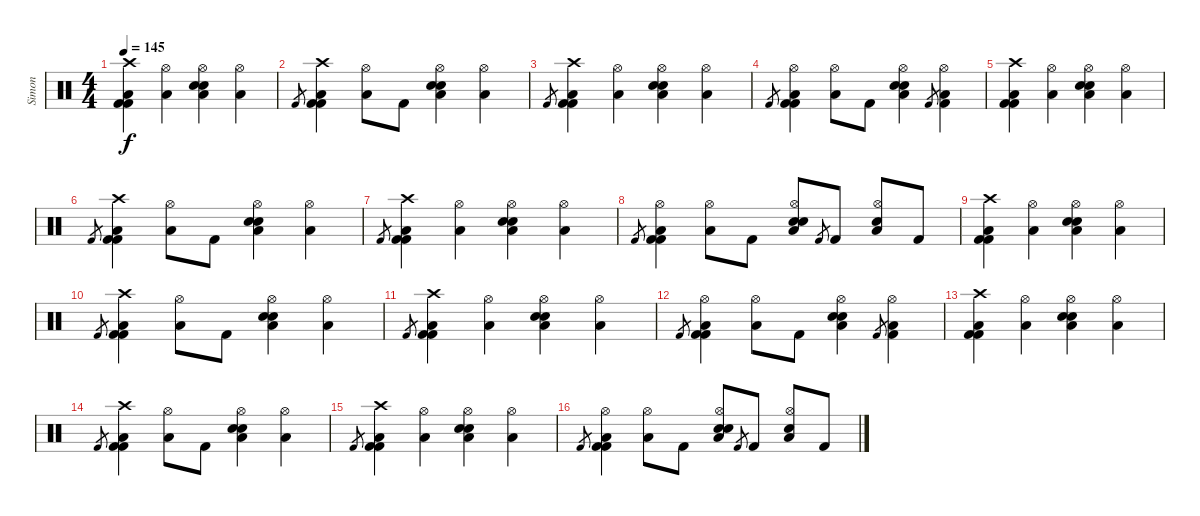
\track ("Simon" "Simon") {instrument percussion}
\staff {score}
\articulation defaults
\ts (4 4)
\tempo 145
\clef neutral
\ks c
("Crash high (hit)" "Kick (hit) 2" "Kick (hit) 2" "Low Tom (hit)").4{dy f} ("Hi-Hat (open)" "Low Tom (hit)").4 ("Hi-Hat (open)" "Electric Snare (hit)" "Electric Snare (hit)" "Low Tom (hit)").4 ("Hi-Hat (open)" "Low Tom (hit)").4 |
"Kick (hit) 2".8{gr} ("Crash high (hit)" "Kick (hit) 2" "Kick (hit) 2" "Low Tom (hit)").4 ("Hi-Hat (open)" "Low Tom (hit)").8 "Kick (hit) 2".8 ("Hi-Hat (open)" "Electric Snare (hit)" "Electric Snare (hit)" "Low Tom (hit)").4 ("Hi-Hat (open)" "Low Tom (hit)").4 |
"Kick (hit) 2".8{gr} ("Crash high (hit)" "Kick (hit) 2" "Kick (hit) 2" "Low Tom (hit)").4 ("Hi-Hat (open)" "Low Tom (hit)").4 ("Hi-Hat (open)" "Electric Snare (hit)" "Electric Snare (hit)" "Low Tom (hit)").4 ("Hi-Hat (open)" "Low Tom (hit)").4 |
"Kick (hit) 2".8{gr} ("Hi-Hat (open)" "Kick (hit) 2" "Kick (hit) 2" "Low Tom (hit)").4 ("Hi-Hat (open)" "Low Tom (hit)").8 "Kick (hit) 2".8 ("Hi-Hat (open)" "Electric Snare (hit)" "Electric Snare (hit)" "Low Tom (hit)").4 "Kick (hit) 2".8{gr} ("Hi-Hat (open)" "Kick (hit) 2" "Low Tom (hit)").4 |
("Crash high (hit)" "Kick (hit) 2" "Kick (hit) 2" "Low Tom (hit)").4 ("Hi-Hat (open)" "Low Tom (hit)").4 ("Hi-Hat (open)" "Electric Snare (hit)" "Electric Snare (hit)" "Low Tom (hit)").4 ("Hi-Hat (open)" "Low Tom (hit)").4 |
"Kick (hit) 2".8{gr} ("Crash high (hit)" "Kick (hit) 2" "Kick (hit) 2" "Low Tom (hit)").4 ("Hi-Hat (open)" "Low Tom (hit)").8 "Kick (hit) 2".8 ("Hi-Hat (open)" "Electric Snare (hit)" "Electric Snare (hit)" "Low Tom (hit)").4 ("Hi-Hat (open)" "Low Tom (hit)").4 |
"Kick (hit) 2".8{gr} ("Crash high (hit)" "Kick (hit) 2" "Kick (hit) 2" "Low Tom (hit)").4 ("Hi-Hat (open)" "Low Tom (hit)").4 ("Hi-Hat (open)" "Electric Snare (hit)" "Electric Snare (hit)" "Low Tom (hit)").4 ("Hi-Hat (open)" "Low Tom (hit)").4 |
"Kick (hit) 2".8{gr} ("Hi-Hat (open)" "Kick (hit) 2" "Kick (hit) 2" "Low Tom (hit)").4 ("Hi-Hat (open)" "Low Tom (hit)").8 "Kick (hit) 2".8 ("Hi-Hat (open)" "Electric Snare (hit)" "Electric Snare (hit)" "Low Tom (hit)").8 "Kick (hit) 2".8{gr} "Kick (hit) 2".8 ("Hi-Hat (open)" "Electric Snare (hit)" "Low Tom (hit)").8 "Kick (hit) 2".8 |
("Crash high (hit)" "Kick (hit) 2" "Kick (hit) 2" "Low Tom (hit)").4 ("Hi-Hat (open)" "Low Tom (hit)").4 ("Hi-Hat (open)" "Electric Snare (hit)" "Electric Snare (hit)" "Low Tom (hit)").4 ("Hi-Hat (open)" "Low Tom (hit)").4 |
"Kick (hit) 2".8{gr} ("Crash high (hit)" "Kick (hit) 2" "Kick (hit) 2" "Low Tom (hit)").4 ("Hi-Hat (open)" "Low Tom (hit)").8 "Kick (hit) 2".8 ("Hi-Hat (open)" "Electric Snare (hit)" "Electric Snare (hit)" "Low Tom (hit)").4 ("Hi-Hat (open)" "Low Tom (hit)").4 |
"Kick (hit) 2".8{gr} ("Crash high (hit)" "Kick (hit) 2" "Kick (hit) 2" "Low Tom (hit)").4 ("Hi-Hat (open)" "Low Tom (hit)").4 ("Hi-Hat (open)" "Electric Snare (hit)" "Electric Snare (hit)" "Low Tom (hit)").4 ("Hi-Hat (open)" "Low Tom (hit)").4 |
"Kick (hit) 2".8{gr} ("Hi-Hat (open)" "Kick (hit) 2" "Kick (hit) 2" "Low Tom (hit)").4 ("Hi-Hat (open)" "Low Tom (hit)").8 "Kick (hit) 2".8 ("Hi-Hat (open)" "Electric Snare (hit)" "Electric Snare (hit)" "Low Tom (hit)").4 "Kick (hit) 2".8{gr} ("Hi-Hat (open)" "Kick (hit) 2" "Low Tom (hit)").4 |
("Crash high (hit)" "Kick (hit) 2" "Kick (hit) 2" "Low Tom (hit)").4 ("Hi-Hat (open)" "Low Tom (hit)").4 ("Hi-Hat (open)" "Electric Snare (hit)" "Electric Snare (hit)" "Low Tom (hit)").4 ("Hi-Hat (open)" "Low Tom (hit)").4 |
"Kick (hit) 2".8{gr} ("Crash high (hit)" "Kick (hit) 2" "Kick (hit) 2" "Low Tom (hit)").4 ("Hi-Hat (open)" "Low Tom (hit)").8 "Kick (hit) 2".8 ("Hi-Hat (open)" "Electric Snare (hit)" "Electric Snare (hit)" "Low Tom (hit)").4 ("Hi-Hat (open)" "Low Tom (hit)").4 |
"Kick (hit) 2".8{gr} ("Crash high (hit)" "Kick (hit) 2" "Kick (hit) 2" "Low Tom (hit)").4 ("Hi-Hat (open)" "Low Tom (hit)").4 ("Hi-Hat (open)" "Electric Snare (hit)" "Electric Snare (hit)" "Low Tom (hit)").4 ("Hi-Hat (open)" "Low Tom (hit)").4 |
"Kick (hit) 2".8{gr} ("Hi-Hat (open)" "Kick (hit) 2" "Kick (hit) 2" "Low Tom (hit)").4 ("Hi-Hat (open)" "Low Tom (hit)").8 "Kick (hit) 2".8 ("Hi-Hat (open)" "Electric Snare (hit)" "Electric Snare (hit)" "Low Tom (hit)").8 "Kick (hit) 2".8{gr} "Kick (hit) 2".8 ("Hi-Hat (open)" "Electric Snare (hit)" "Low Tom (hit)").8 "Kick (hit) 2".8
